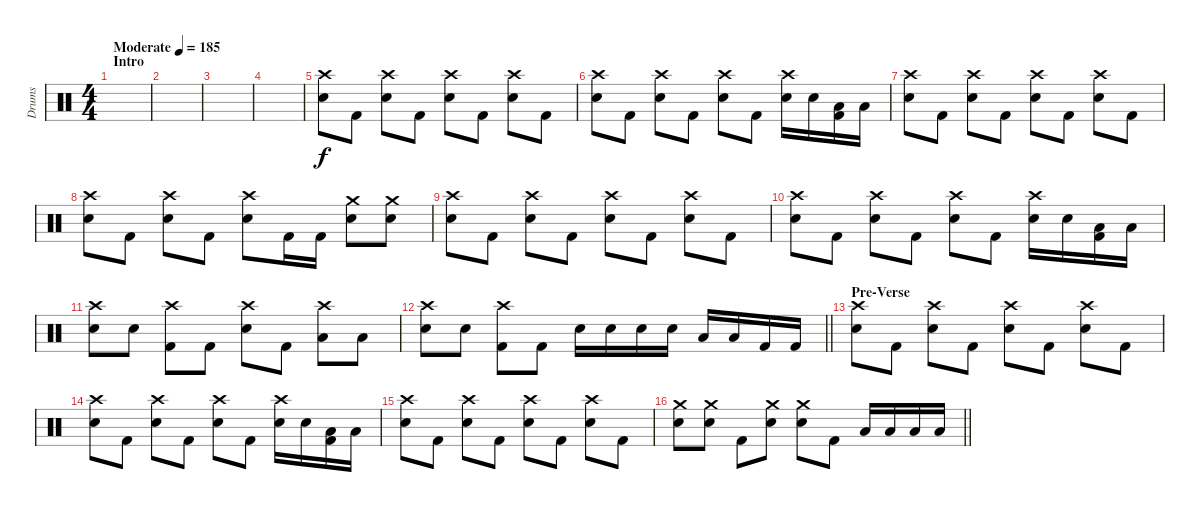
\track ("Drums" "Drums") {instrument percussion}
\staff {score}
\articulation defaults
\ts (4 4)
\section ("" "Intro")
\tempo (185 "Moderate")
\clef neutral
\ks c
|
|
|
|
("Crash high (hit)" "Electric Snare (hit)").8 "Kick (hit) 2".8 ("Crash high (hit)" "Electric Snare (hit)").8 "Kick (hit) 2".8 ("Crash high (hit)" "Electric Snare (hit)").8 "Kick (hit) 2".8 ("Crash high (hit)" "Electric Snare (hit)").8 "Kick (hit) 2".8 |
("Crash high (hit)" "Electric Snare (hit)").8 "Kick (hit) 2".8 ("Crash high (hit)" "Electric Snare (hit)").8 "Kick (hit) 2".8 ("Crash high (hit)" "Electric Snare (hit)").8 "Kick (hit) 2".8 ("Crash high (hit)" "Electric Snare (hit)").16 "Electric Snare (hit)".16 ("Low Tom (hit)" "Kick (hit) 2").16 "Low Tom (hit)".16 |
("Crash high (hit)" "Electric Snare (hit)").8 "Kick (hit) 2".8 ("Crash high (hit)" "Electric Snare (hit)").8 "Kick (hit) 2".8 ("Crash high (hit)" "Electric Snare (hit)").8 "Kick (hit) 2".8 ("Crash high (hit)" "Electric Snare (hit)").8 "Kick (hit) 2".8 |
("Crash high (hit)" "Electric Snare (hit)").8 "Kick (hit) 2".8 ("Crash high (hit)" "Electric Snare (hit)").8 "Kick (hit) 2".8 ("Crash high (hit)" "Electric Snare (hit)").8 "Kick (hit) 2".16 "Kick (hit) 2".16 ("Crash medium (hit)" "Electric Snare (hit)").8 ("Crash medium (hit)" "Electric Snare (hit)").8 |
("Crash high (hit)" "Electric Snare (hit)").8 "Kick (hit) 2".8 ("Crash high (hit)" "Electric Snare (hit)").8 "Kick (hit) 2".8 ("Crash high (hit)" "Electric Snare (hit)").8 "Kick (hit) 2".8 ("Crash high (hit)" "Electric Snare (hit)").8 "Kick (hit) 2".8 |
("Crash high (hit)" "Electric Snare (hit)").8 "Kick (hit) 2".8 ("Crash high (hit)" "Electric Snare (hit)").8 "Kick (hit) 2".8 ("Crash high (hit)" "Electric Snare (hit)").8 "Kick (hit) 2".8 ("Crash high (hit)" "Electric Snare (hit)").16 "Electric Snare (hit)".16 ("Low Tom (hit)" "Kick (hit) 2").16 "Low Tom (hit)".16 |
("Crash high (hit)" "Electric Snare (hit)").8 "Electric Snare (hit)".8 ("Crash high (hit)" "Kick (hit) 2").8 "Kick (hit) 2".8 ("Crash high (hit)" "Electric Snare (hit)").8 "Kick (hit) 2".8 ("Crash high (hit)" "Low Tom (hit)").8 "Low Tom (hit)".8 |
\barLineRight lightlight
("Crash high (hit)" "Electric Snare (hit)").8 "Electric Snare (hit)".8 ("Crash high (hit)" "Kick (hit) 2").8 "Kick (hit) 2".8 "Electric Snare (hit)".16 "Electric Snare (hit)".16 "Electric Snare (hit)".16 "Electric Snare (hit)".16 "Low Tom (hit)".16 "Low Tom (hit)".16 "Kick (hit) 2".16 "Kick (hit) 2".16 |
\section ("" "Pre-Verse")
("Crash high (hit)" "Electric Snare (hit)").8 "Kick (hit) 2".8 ("Crash high (hit)" "Electric Snare (hit)").8 "Kick (hit) 2".8 ("Crash high (hit)" "Electric Snare (hit)").8 "Kick (hit) 2".8 ("Crash high (hit)" "Electric Snare (hit)").8 "Kick (hit) 2".8 |
("Crash high (hit)" "Electric Snare (hit)").8 "Kick (hit) 2".8 ("Crash high (hit)" "Electric Snare (hit)").8 "Kick (hit) 2".8 ("Crash high (hit)" "Electric Snare (hit)").8 "Kick (hit) 2".8 ("Crash high (hit)" "Electric Snare (hit)").16 "Electric Snare (hit)".16 ("Low Tom (hit)" "Kick (hit) 2").16 "Low Tom (hit)".16 |
("Crash high (hit)" "Electric Snare (hit)").8 "Kick (hit) 2".8 ("Crash high (hit)" "Electric Snare (hit)").8 "Kick (hit) 2".8 ("Crash high (hit)" "Electric Snare (hit)").8 "Kick (hit) 2".8 ("Crash high (hit)" "Electric Snare (hit)").8 "Kick (hit) 2".8 |
\barLineRight lightlight
("Crash medium (hit)" "Electric Snare (hit)").8 ("Crash medium (hit)" "Electric Snare (hit)").8 "Kick (hit) 2".8 ("Crash medium (hit)" "Electric Snare (hit)").8 ("Crash medium (hit)" "Electric Snare (hit)").8 "Kick (hit) 2".8 "Low Tom (hit)".16 "Low Tom (hit)".16 "Low Tom (hit)".16 "Low Tom (hit)".16
